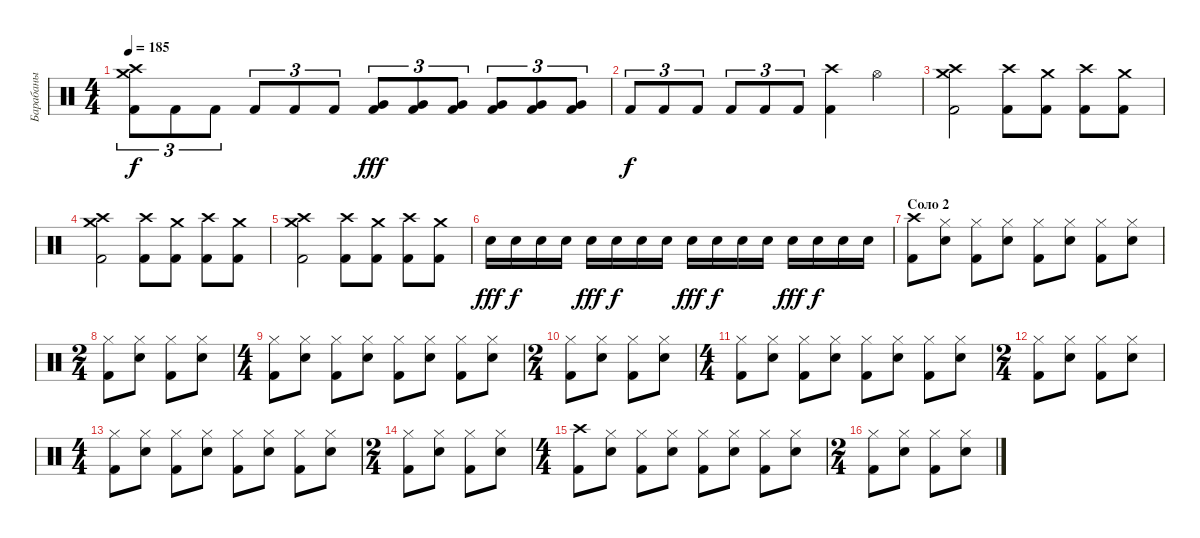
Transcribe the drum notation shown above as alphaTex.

\track ("Барабаны" "Барабаны") {instrument percussion}
\staff {score}
\articulation defaults
\ts (4 4)
\tempo 185
\clef neutral
\ks c
("Crash high (hit)" "Crash medium (hit)" "Kick (hit) 2").8{tu (3 2) dy f} "Kick (hit) 2".8{tu (3 2)} "Kick (hit) 2".8{tu (3 2)} "Kick (hit) 2".8{tu (3 2)} "Kick (hit) 2".8{tu (3 2)} "Kick (hit) 2".8{tu (3 2)} ("Very Low Tom (hit)" "Kick (hit) 2").8{tu (3 2) dy fff} ("Very Low Tom (hit)" "Kick (hit) 2").8{tu (3 2)} ("Very Low Tom (hit)" "Kick (hit) 2").8{tu (3 2)} ("Very Low Tom (hit)" "Kick (hit) 2").8{tu (3 2)} ("Very Low Tom (hit)" "Kick (hit) 2").8{tu (3 2)} ("Very Low Tom (hit)" "Kick (hit) 2").8{tu (3 2)} |
"Kick (hit) 2".8{tu (3 2) dy f} "Kick (hit) 2".8{tu (3 2)} "Kick (hit) 2".8{tu (3 2)} "Kick (hit) 2".8{tu (3 2)} "Kick (hit) 2".8{tu (3 2)} "Kick (hit) 2".8{tu (3 2)} ("Crash high (hit)" "Kick (hit) 2").4 "Hi-Hat (open)".4 |
("Crash high (hit)" "Crash medium (hit)" "Kick (hit) 2").2 ("Crash high (hit)" "Kick (hit) 2").8 ("Crash medium (hit)" "Kick (hit) 2").8 ("Crash high (hit)" "Kick (hit) 2").8 ("Crash medium (hit)" "Kick (hit) 2").8 |
("Crash high (hit)" "Crash medium (hit)" "Kick (hit) 2").2 ("Crash high (hit)" "Kick (hit) 2").8 ("Crash medium (hit)" "Kick (hit) 2").8 ("Crash high (hit)" "Kick (hit) 2").8 ("Crash medium (hit)" "Kick (hit) 2").8 |
("Crash high (hit)" "Crash medium (hit)" "Kick (hit) 2").2 ("Crash high (hit)" "Kick (hit) 2").8 ("Crash medium (hit)" "Kick (hit) 2").8 ("Crash high (hit)" "Kick (hit) 2").8 ("Crash medium (hit)" "Kick (hit) 2").8 |
"Snare (hit) 2".16{dy fff} "Snare (hit) 2".16{dy f} "Snare (hit) 2".16 "Snare (hit) 2".16 "Snare (hit) 2".16{dy fff} "Snare (hit) 2".16{dy f} "Snare (hit) 2".16 "Snare (hit) 2".16 "Snare (hit) 2".16{dy fff} "Snare (hit) 2".16{dy f} "Snare (hit) 2".16 "Snare (hit) 2".16 "Snare (hit) 2".16{dy fff} "Snare (hit) 2".16{dy f} "Snare (hit) 2".16 "Snare (hit) 2".16 |
\section ("" "Соло 2")
("Crash high (hit)" "Kick (hit) 2").8 ("Hi-Hat (closed)" "Snare (hit) 2").8 ("Hi-Hat (closed)" "Kick (hit) 2").8 ("Hi-Hat (closed)" "Snare (hit) 2").8 ("Hi-Hat (closed)" "Kick (hit) 2").8 ("Hi-Hat (closed)" "Snare (hit) 2").8 ("Hi-Hat (closed)" "Kick (hit) 2").8 ("Hi-Hat (closed)" "Snare (hit) 2").8 |
\ts (2 4)
("Hi-Hat (closed)" "Kick (hit) 2").8 ("Hi-Hat (closed)" "Snare (hit) 2").8 ("Hi-Hat (closed)" "Kick (hit) 2").8 ("Hi-Hat (closed)" "Snare (hit) 2").8 |
\ts (4 4)
("Hi-Hat (closed)" "Kick (hit) 2").8 ("Hi-Hat (closed)" "Snare (hit) 2").8 ("Hi-Hat (closed)" "Kick (hit) 2").8 ("Hi-Hat (closed)" "Snare (hit) 2").8 ("Hi-Hat (closed)" "Kick (hit) 2").8 ("Hi-Hat (closed)" "Snare (hit) 2").8 ("Hi-Hat (closed)" "Kick (hit) 2").8 ("Hi-Hat (closed)" "Snare (hit) 2").8 |
\ts (2 4)
("Hi-Hat (closed)" "Kick (hit) 2").8 ("Hi-Hat (closed)" "Snare (hit) 2").8 ("Hi-Hat (closed)" "Kick (hit) 2").8 ("Hi-Hat (closed)" "Snare (hit) 2").8 |
\ts (4 4)
("Hi-Hat (closed)" "Kick (hit) 2").8 ("Hi-Hat (closed)" "Snare (hit) 2").8 ("Hi-Hat (closed)" "Kick (hit) 2").8 ("Hi-Hat (closed)" "Snare (hit) 2").8 ("Hi-Hat (closed)" "Kick (hit) 2").8 ("Hi-Hat (closed)" "Snare (hit) 2").8 ("Hi-Hat (closed)" "Kick (hit) 2").8 ("Hi-Hat (closed)" "Snare (hit) 2").8 |
\ts (2 4)
("Hi-Hat (closed)" "Kick (hit) 2").8 ("Hi-Hat (closed)" "Snare (hit) 2").8 ("Hi-Hat (closed)" "Kick (hit) 2").8 ("Hi-Hat (closed)" "Snare (hit) 2").8 |
\ts (4 4)
("Hi-Hat (closed)" "Kick (hit) 2").8 ("Hi-Hat (closed)" "Snare (hit) 2").8 ("Hi-Hat (closed)" "Kick (hit) 2").8 ("Hi-Hat (closed)" "Snare (hit) 2").8 ("Hi-Hat (closed)" "Kick (hit) 2").8 ("Hi-Hat (closed)" "Snare (hit) 2").8 ("Hi-Hat (closed)" "Kick (hit) 2").8 ("Hi-Hat (closed)" "Snare (hit) 2").8 |
\ts (2 4)
("Hi-Hat (closed)" "Kick (hit) 2").8 ("Hi-Hat (closed)" "Snare (hit) 2").8 ("Hi-Hat (closed)" "Kick (hit) 2").8 ("Hi-Hat (closed)" "Snare (hit) 2").8 |
\ts (4 4)
("Crash high (hit)" "Kick (hit) 2").8 ("Hi-Hat (closed)" "Snare (hit) 2").8 ("Hi-Hat (closed)" "Kick (hit) 2").8 ("Hi-Hat (closed)" "Snare (hit) 2").8 ("Hi-Hat (closed)" "Kick (hit) 2").8 ("Hi-Hat (closed)" "Snare (hit) 2").8 ("Hi-Hat (closed)" "Kick (hit) 2").8 ("Hi-Hat (closed)" "Snare (hit) 2").8 |
\ts (2 4)
("Hi-Hat (closed)" "Kick (hit) 2").8 ("Hi-Hat (closed)" "Snare (hit) 2").8 ("Hi-Hat (closed)" "Kick (hit) 2").8 ("Hi-Hat (closed)" "Snare (hit) 2").8
